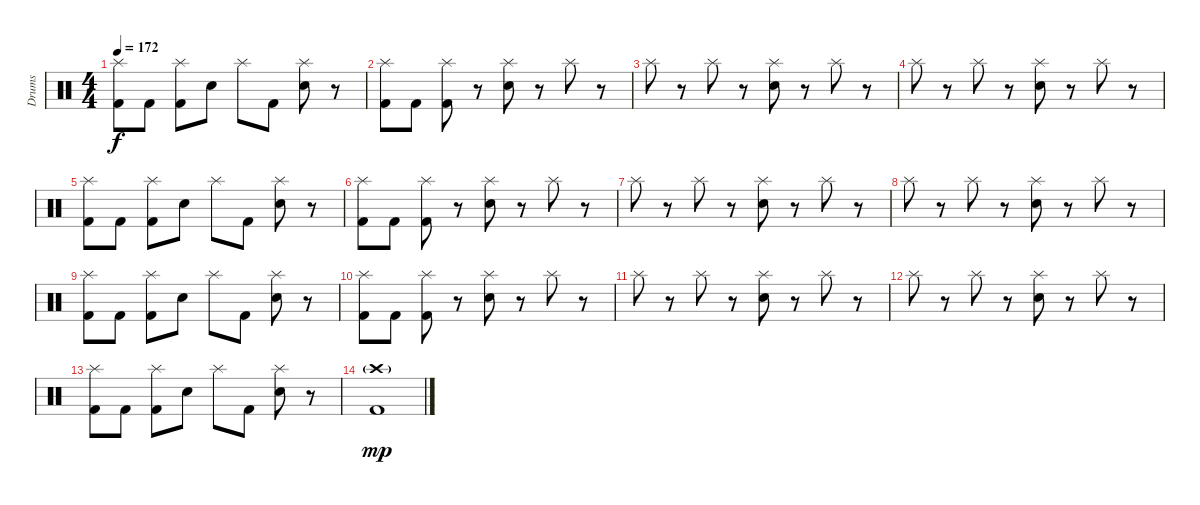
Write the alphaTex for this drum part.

\track ("Drums" "Drums") {instrument percussion}
\staff {score}
\articulation defaults
\ts (4 4)
\tempo 172
\clef neutral
\ks c
("Splash (hit)" "Kick (hit) 2").8{dy f} "Kick (hit) 2".8 ("Splash (hit)" "Kick (hit) 2").8 "Electric Snare (hit)".8 "Splash (hit)".8 "Kick (hit) 2".8 ("Splash (hit)" "Electric Snare (hit)").8 r.8 |
("Splash (hit)" "Kick (hit) 2").8 "Kick (hit) 2".8 ("Splash (hit)" "Kick (hit) 2").8 r.8 ("Splash (hit)" "Electric Snare (hit)").8 r.8 "Splash (hit)".8 r.8 |
"Splash (hit)".8 r.8 "Splash (hit)".8 r.8 ("Splash (hit)" "Electric Snare (hit)").8 r.8 "Splash (hit)".8 r.8 |
"Splash (hit)".8 r.8 "Splash (hit)".8 r.8 ("Splash (hit)" "Electric Snare (hit)").8 r.8 "Splash (hit)".8 r.8 |
("Splash (hit)" "Kick (hit) 2").8 "Kick (hit) 2".8 ("Splash (hit)" "Kick (hit) 2").8 "Electric Snare (hit)".8 "Splash (hit)".8 "Kick (hit) 2".8 ("Splash (hit)" "Electric Snare (hit)").8 r.8 |
("Splash (hit)" "Kick (hit) 2").8 "Kick (hit) 2".8 ("Splash (hit)" "Kick (hit) 2").8 r.8 ("Splash (hit)" "Electric Snare (hit)").8 r.8 "Splash (hit)".8 r.8 |
"Splash (hit)".8 r.8 "Splash (hit)".8 r.8 ("Splash (hit)" "Electric Snare (hit)").8 r.8 "Splash (hit)".8 r.8 |
"Splash (hit)".8 r.8 "Splash (hit)".8 r.8 ("Splash (hit)" "Electric Snare (hit)").8 r.8 "Splash (hit)".8 r.8 |
("Splash (hit)" "Kick (hit) 2").8 "Kick (hit) 2".8 ("Splash (hit)" "Kick (hit) 2").8 "Electric Snare (hit)".8 "Splash (hit)".8 "Kick (hit) 2".8 ("Splash (hit)" "Electric Snare (hit)").8 r.8 |
("Splash (hit)" "Kick (hit) 2").8 "Kick (hit) 2".8 ("Splash (hit)" "Kick (hit) 2").8 r.8 ("Splash (hit)" "Electric Snare (hit)").8 r.8 "Splash (hit)".8 r.8 |
"Splash (hit)".8 r.8 "Splash (hit)".8 r.8 ("Splash (hit)" "Electric Snare (hit)").8 r.8 "Splash (hit)".8 r.8 |
"Splash (hit)".8 r.8 "Splash (hit)".8 r.8 ("Splash (hit)" "Electric Snare (hit)").8 r.8 "Splash (hit)".8 r.8 |
("Splash (hit)" "Kick (hit) 2").8 "Kick (hit) 2".8 ("Splash (hit)" "Kick (hit) 2").8 "Electric Snare (hit)".8 "Splash (hit)".8 "Kick (hit) 2".8 ("Splash (hit)" "Electric Snare (hit)").8 r.8 |
("Crash high (hit)"{g} "Kick (hit) 2").1{dy mp}
